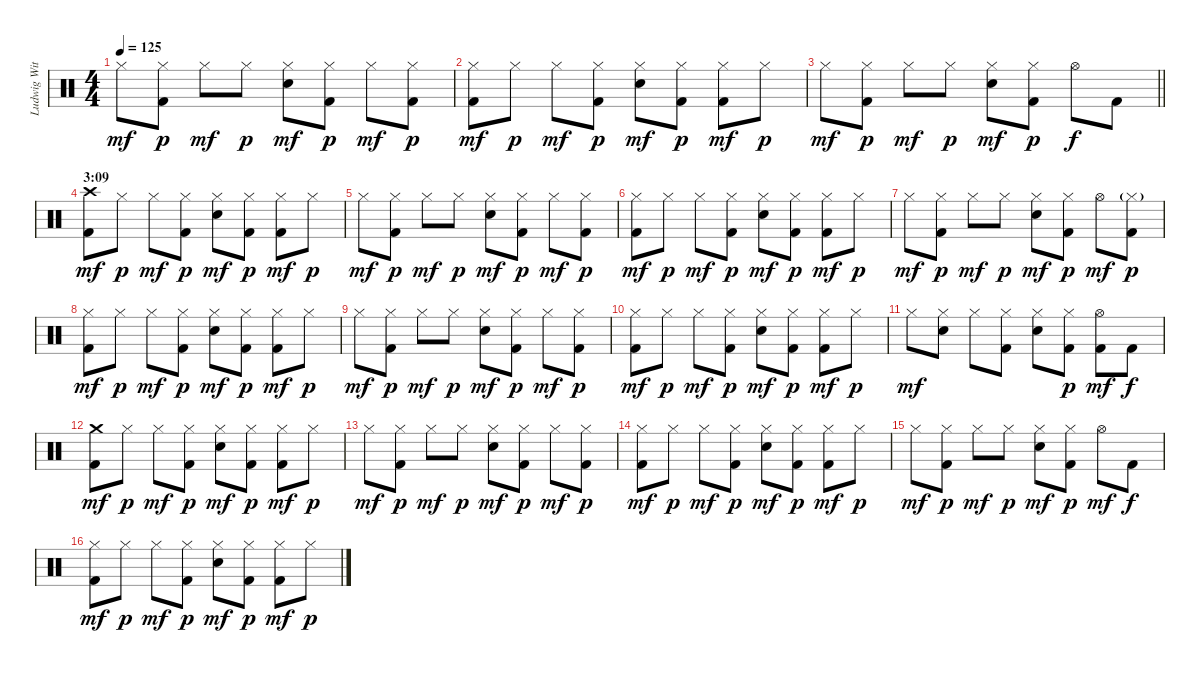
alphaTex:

\track ("Ludwig Witt" "Ludwig Wit") {instrument percussion}
\staff {score}
\articulation defaults
\ts (4 4)
\tempo 125
\clef neutral
\ks c "Hi-Hat (closed)".8{dy mf}
("Hi-Hat (closed)" "Kick (hit) 2").8{dy p} "Hi-Hat (closed)".8{dy mf} "Hi-Hat (closed)".8{dy p} ("Hi-Hat (closed)" "Electric Snare (hit)").8{dy mf} ("Hi-Hat (closed)" "Kick (hit) 2").8{dy p} "Hi-Hat (closed)".8{dy mf} ("Hi-Hat (closed)" "Kick (hit) 2").8{dy p} |
("Hi-Hat (closed)" "Kick (hit) 2").8{dy mf} "Hi-Hat (closed)".8{dy p} "Hi-Hat (closed)".8{dy mf} ("Hi-Hat (closed)" "Kick (hit) 2").8{dy p} ("Hi-Hat (closed)" "Electric Snare (hit)").8{dy mf} ("Hi-Hat (closed)" "Kick (hit) 2").8{dy p} ("Hi-Hat (closed)" "Kick (hit) 2").8{dy mf} "Hi-Hat (closed)".8{dy p} |
\barLineRight lightlight "Hi-Hat (closed)".8{dy mf}
("Hi-Hat (closed)" "Kick (hit) 2").8{dy p} "Hi-Hat (closed)".8{dy mf} "Hi-Hat (closed)".8{dy p} ("Hi-Hat (closed)" "Electric Snare (hit)").8{dy mf} ("Hi-Hat (closed)" "Kick (hit) 2").8{dy p} "Hi-Hat (open)".8{dy f} "Kick (hit) 2".8 |
\section ("" "3:09")
("Crash high (hit)" "Kick (hit) 2").8{dy mf} "Hi-Hat (closed)".8{dy p} "Hi-Hat (closed)".8{dy mf} ("Hi-Hat (closed)" "Kick (hit) 2").8{dy p} ("Hi-Hat (closed)" "Electric Snare (hit)").8{dy mf} ("Hi-Hat (closed)" "Kick (hit) 2").8{dy p} ("Hi-Hat (closed)" "Kick (hit) 2").8{dy mf} "Hi-Hat (closed)".8{dy p} |
"Hi-Hat (closed)".8{dy mf} ("Hi-Hat (closed)" "Kick (hit) 2").8{dy p} "Hi-Hat (closed)".8{dy mf} "Hi-Hat (closed)".8{dy p} ("Hi-Hat (closed)" "Electric Snare (hit)").8{dy mf} ("Hi-Hat (closed)" "Kick (hit) 2").8{dy p} "Hi-Hat (closed)".8{dy mf} ("Hi-Hat (closed)" "Kick (hit) 2").8{dy p} |
("Hi-Hat (closed)" "Kick (hit) 2").8{dy mf} "Hi-Hat (closed)".8{dy p} "Hi-Hat (closed)".8{dy mf} ("Hi-Hat (closed)" "Kick (hit) 2").8{dy p} ("Hi-Hat (closed)" "Electric Snare (hit)").8{dy mf} ("Hi-Hat (closed)" "Kick (hit) 2").8{dy p} ("Hi-Hat (closed)" "Kick (hit) 2").8{dy mf} "Hi-Hat (closed)".8{dy p} |
"Hi-Hat (closed)".8{dy mf} ("Hi-Hat (closed)" "Kick (hit) 2").8{dy p} "Hi-Hat (closed)".8{dy mf} "Hi-Hat (closed)".8{dy p} ("Hi-Hat (closed)" "Electric Snare (hit)").8{dy mf} ("Hi-Hat (closed)" "Kick (hit) 2").8{dy p} "Hi-Hat (open)".8{dy mf} ("Hi-Hat (closed)"{g} "Kick (hit) 2").8{dy p} |
("Hi-Hat (closed)" "Kick (hit) 2").8{dy mf} "Hi-Hat (closed)".8{dy p} "Hi-Hat (closed)".8{dy mf} ("Hi-Hat (closed)" "Kick (hit) 2").8{dy p} ("Hi-Hat (closed)" "Electric Snare (hit)").8{dy mf} ("Hi-Hat (closed)" "Kick (hit) 2").8{dy p} ("Hi-Hat (closed)" "Kick (hit) 2").8{dy mf} "Hi-Hat (closed)".8{dy p} |
"Hi-Hat (closed)".8{dy mf} ("Hi-Hat (closed)" "Kick (hit) 2").8{dy p} "Hi-Hat (closed)".8{dy mf} "Hi-Hat (closed)".8{dy p} ("Hi-Hat (closed)" "Electric Snare (hit)").8{dy mf} ("Hi-Hat (closed)" "Kick (hit) 2").8{dy p} "Hi-Hat (closed)".8{dy mf} ("Hi-Hat (closed)" "Kick (hit) 2").8{dy p} |
("Hi-Hat (closed)" "Kick (hit) 2").8{dy mf} "Hi-Hat (closed)".8{dy p} "Hi-Hat (closed)".8{dy mf} ("Hi-Hat (closed)" "Kick (hit) 2").8{dy p} ("Hi-Hat (closed)" "Electric Snare (hit)").8{dy mf} ("Hi-Hat (closed)" "Kick (hit) 2").8{dy p} ("Hi-Hat (closed)" "Kick (hit) 2").8{dy mf} "Hi-Hat (closed)".8{dy p} |
"Hi-Hat (closed)".8{dy mf} ("Hi-Hat (closed)" "Electric Snare (hit)").8 "Hi-Hat (closed)".8 ("Hi-Hat (closed)" "Kick (hit) 2").8 ("Hi-Hat (closed)" "Electric Snare (hit)").8 ("Hi-Hat (closed)" "Kick (hit) 2").8{dy p} ("Hi-Hat (open)" "Kick (hit) 2").8{dy mf} "Kick (hit) 2".8{dy f} |
("Crash medium (hit)" "Kick (hit) 2").8{dy mf} "Hi-Hat (closed)".8{dy p} "Hi-Hat (closed)".8{dy mf} ("Hi-Hat (closed)" "Kick (hit) 2").8{dy p} ("Hi-Hat (closed)" "Electric Snare (hit)").8{dy mf} ("Hi-Hat (closed)" "Kick (hit) 2").8{dy p} ("Hi-Hat (closed)" "Kick (hit) 2").8{dy mf} "Hi-Hat (closed)".8{dy p} |
"Hi-Hat (closed)".8{dy mf} ("Hi-Hat (closed)" "Kick (hit) 2").8{dy p} "Hi-Hat (closed)".8{dy mf} "Hi-Hat (closed)".8{dy p} ("Hi-Hat (closed)" "Electric Snare (hit)").8{dy mf} ("Hi-Hat (closed)" "Kick (hit) 2").8{dy p} "Hi-Hat (closed)".8{dy mf} ("Hi-Hat (closed)" "Kick (hit) 2").8{dy p} |
("Hi-Hat (closed)" "Kick (hit) 2").8{dy mf} "Hi-Hat (closed)".8{dy p} "Hi-Hat (closed)".8{dy mf} ("Hi-Hat (closed)" "Kick (hit) 2").8{dy p} ("Hi-Hat (closed)" "Electric Snare (hit)").8{dy mf} ("Hi-Hat (closed)" "Kick (hit) 2").8{dy p} ("Hi-Hat (closed)" "Kick (hit) 2").8{dy mf} "Hi-Hat (closed)".8{dy p} |
"Hi-Hat (closed)".8{dy mf} ("Hi-Hat (closed)" "Kick (hit) 2").8{dy p} "Hi-Hat (closed)".8{dy mf} "Hi-Hat (closed)".8{dy p} ("Hi-Hat (closed)" "Electric Snare (hit)").8{dy mf} ("Hi-Hat (closed)" "Kick (hit) 2").8{dy p} "Hi-Hat (open)".8{dy mf} "Kick (hit) 2".8{dy f} |
("Hi-Hat (closed)" "Kick (hit) 2").8{dy mf} "Hi-Hat (closed)".8{dy p} "Hi-Hat (closed)".8{dy mf} ("Hi-Hat (closed)" "Kick (hit) 2").8{dy p} ("Hi-Hat (closed)" "Electric Snare (hit)").8{dy mf} ("Hi-Hat (closed)" "Kick (hit) 2").8{dy p} ("Hi-Hat (closed)" "Kick (hit) 2").8{dy mf} "Hi-Hat (closed)".8{dy p}
